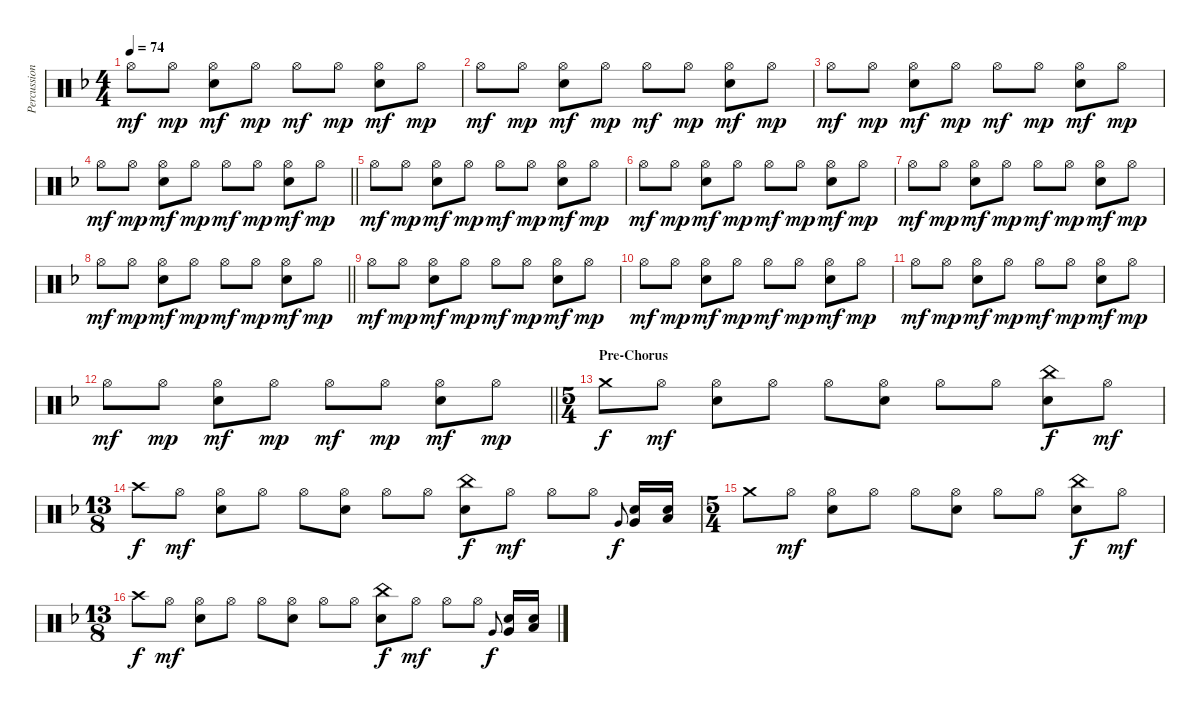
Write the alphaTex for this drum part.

\track ("Percussion" "Percussion") {instrument percussion}
\staff {score}
\articulation defaults
\ts (4 4)
\tempo 74
\clef neutral
\ks f "Hi-Hat (open)".8{dy mf} "Hi-Hat (open)".8{dy mp}
("Hi-Hat (open)" "Electric Snare (hit)").8{dy mf} "Hi-Hat (open)".8{dy mp} "Hi-Hat (open)".8{dy mf} "Hi-Hat (open)".8{dy mp} ("Hi-Hat (open)" "Electric Snare (hit)").8{dy mf} "Hi-Hat (open)".8{dy mp} |
"Hi-Hat (open)".8{dy mf} "Hi-Hat (open)".8{dy mp} ("Hi-Hat (open)" "Electric Snare (hit)").8{dy mf} "Hi-Hat (open)".8{dy mp} "Hi-Hat (open)".8{dy mf} "Hi-Hat (open)".8{dy mp} ("Hi-Hat (open)" "Electric Snare (hit)").8{dy mf} "Hi-Hat (open)".8{dy mp} |
"Hi-Hat (open)".8{dy mf} "Hi-Hat (open)".8{dy mp} ("Hi-Hat (open)" "Electric Snare (hit)").8{dy mf} "Hi-Hat (open)".8{dy mp} "Hi-Hat (open)".8{dy mf} "Hi-Hat (open)".8{dy mp} ("Hi-Hat (open)" "Electric Snare (hit)").8{dy mf} "Hi-Hat (open)".8{dy mp} |
\barLineRight lightlight "Hi-Hat (open)".8{dy mf} "Hi-Hat (open)".8{dy mp}
("Hi-Hat (open)" "Electric Snare (hit)").8{dy mf} "Hi-Hat (open)".8{dy mp} "Hi-Hat (open)".8{dy mf} "Hi-Hat (open)".8{dy mp} ("Hi-Hat (open)" "Electric Snare (hit)").8{dy mf} "Hi-Hat (open)".8{dy mp} |
"Hi-Hat (open)".8{dy mf} "Hi-Hat (open)".8{dy mp} ("Hi-Hat (open)" "Electric Snare (hit)").8{dy mf} "Hi-Hat (open)".8{dy mp} "Hi-Hat (open)".8{dy mf} "Hi-Hat (open)".8{dy mp} ("Hi-Hat (open)" "Electric Snare (hit)").8{dy mf} "Hi-Hat (open)".8{dy mp} |
"Hi-Hat (open)".8{dy mf} "Hi-Hat (open)".8{dy mp} ("Hi-Hat (open)" "Electric Snare (hit)").8{dy mf} "Hi-Hat (open)".8{dy mp} "Hi-Hat (open)".8{dy mf} "Hi-Hat (open)".8{dy mp} ("Hi-Hat (open)" "Electric Snare (hit)").8{dy mf} "Hi-Hat (open)".8{dy mp} |
"Hi-Hat (open)".8{dy mf} "Hi-Hat (open)".8{dy mp} ("Hi-Hat (open)" "Electric Snare (hit)").8{dy mf} "Hi-Hat (open)".8{dy mp} "Hi-Hat (open)".8{dy mf} "Hi-Hat (open)".8{dy mp} ("Hi-Hat (open)" "Electric Snare (hit)").8{dy mf} "Hi-Hat (open)".8{dy mp} |
\barLineRight lightlight "Hi-Hat (open)".8{dy mf} "Hi-Hat (open)".8{dy mp}
("Hi-Hat (open)" "Electric Snare (hit)").8{dy mf} "Hi-Hat (open)".8{dy mp} "Hi-Hat (open)".8{dy mf} "Hi-Hat (open)".8{dy mp} ("Hi-Hat (open)" "Electric Snare (hit)").8{dy mf} "Hi-Hat (open)".8{dy mp} |
"Hi-Hat (open)".8{dy mf} "Hi-Hat (open)".8{dy mp} ("Hi-Hat (open)" "Electric Snare (hit)").8{dy mf} "Hi-Hat (open)".8{dy mp} "Hi-Hat (open)".8{dy mf} "Hi-Hat (open)".8{dy mp} ("Hi-Hat (open)" "Electric Snare (hit)").8{dy mf} "Hi-Hat (open)".8{dy mp} |
"Hi-Hat (open)".8{dy mf} "Hi-Hat (open)".8{dy mp} ("Hi-Hat (open)" "Electric Snare (hit)").8{dy mf} "Hi-Hat (open)".8{dy mp} "Hi-Hat (open)".8{dy mf} "Hi-Hat (open)".8{dy mp} ("Hi-Hat (open)" "Electric Snare (hit)").8{dy mf} "Hi-Hat (open)".8{dy mp} |
"Hi-Hat (open)".8{dy mf} "Hi-Hat (open)".8{dy mp} ("Hi-Hat (open)" "Electric Snare (hit)").8{dy mf} "Hi-Hat (open)".8{dy mp} "Hi-Hat (open)".8{dy mf} "Hi-Hat (open)".8{dy mp} ("Hi-Hat (open)" "Electric Snare (hit)").8{dy mf} "Hi-Hat (open)".8{dy mp} |
\barLineRight lightlight "Hi-Hat (open)".8{dy mf} "Hi-Hat (open)".8{dy mp}
("Hi-Hat (open)" "Electric Snare (hit)").8{dy mf} "Hi-Hat (open)".8{dy mp} "Hi-Hat (open)".8{dy mf} "Hi-Hat (open)".8{dy mp} ("Hi-Hat (open)" "Electric Snare (hit)").8{dy mf} "Hi-Hat (open)".8{dy mp} |
\ts (5 4)
\section ("" "Pre-Chorus")
"Crash medium (hit)".8{dy f} "Hi-Hat (open)".8{dy mf} ("Hi-Hat (open)" "Electric Snare (hit)").8 "Hi-Hat (open)".8 "Hi-Hat (open)".8 ("Hi-Hat (open)" "Electric Snare (hit)").8 "Hi-Hat (open)".8 "Hi-Hat (open)".8 ("China (hit)" "Electric Snare (hit)").8{dy f} "Hi-Hat (open)".8{dy mf} |
\ts (13 8)
"Crash high (hit)".8{dy f} "Hi-Hat (open)".8{dy mf} ("Hi-Hat (open)" "Electric Snare (hit)").8 "Hi-Hat (open)".8 "Hi-Hat (open)".8 ("Hi-Hat (open)" "Electric Snare (hit)").8 "Hi-Hat (open)".8 "Hi-Hat (open)".8 ("China (hit)" "Electric Snare (hit)").8{dy f} "Hi-Hat (open)".8{dy mf} "Hi-Hat (open)".8 "Hi-Hat (open)".8 "Very Low Tom (hit)".8{gr onbeat dy f} ("Very Low Tom (hit)" "Electric Snare (hit)").16 ("Low Floor Tom (hit)" "Electric Snare (hit)").16 |
\ts (5 4)
"Crash medium (hit)".8 "Hi-Hat (open)".8{dy mf} ("Hi-Hat (open)" "Electric Snare (hit)").8 "Hi-Hat (open)".8 "Hi-Hat (open)".8 ("Hi-Hat (open)" "Electric Snare (hit)").8 "Hi-Hat (open)".8 "Hi-Hat (open)".8 ("China (hit)" "Electric Snare (hit)").8{dy f} "Hi-Hat (open)".8{dy mf} |
\ts (13 8)
"Crash high (hit)".8{dy f} "Hi-Hat (open)".8{dy mf} ("Hi-Hat (open)" "Electric Snare (hit)").8 "Hi-Hat (open)".8 "Hi-Hat (open)".8 ("Hi-Hat (open)" "Electric Snare (hit)").8 "Hi-Hat (open)".8 "Hi-Hat (open)".8 ("China (hit)" "Electric Snare (hit)").8{dy f} "Hi-Hat (open)".8{dy mf} "Hi-Hat (open)".8 "Hi-Hat (open)".8 "Very Low Tom (hit)".8{gr onbeat dy f} ("Very Low Tom (hit)" "Electric Snare (hit)").16 ("Low Floor Tom (hit)" "Electric Snare (hit)").16
